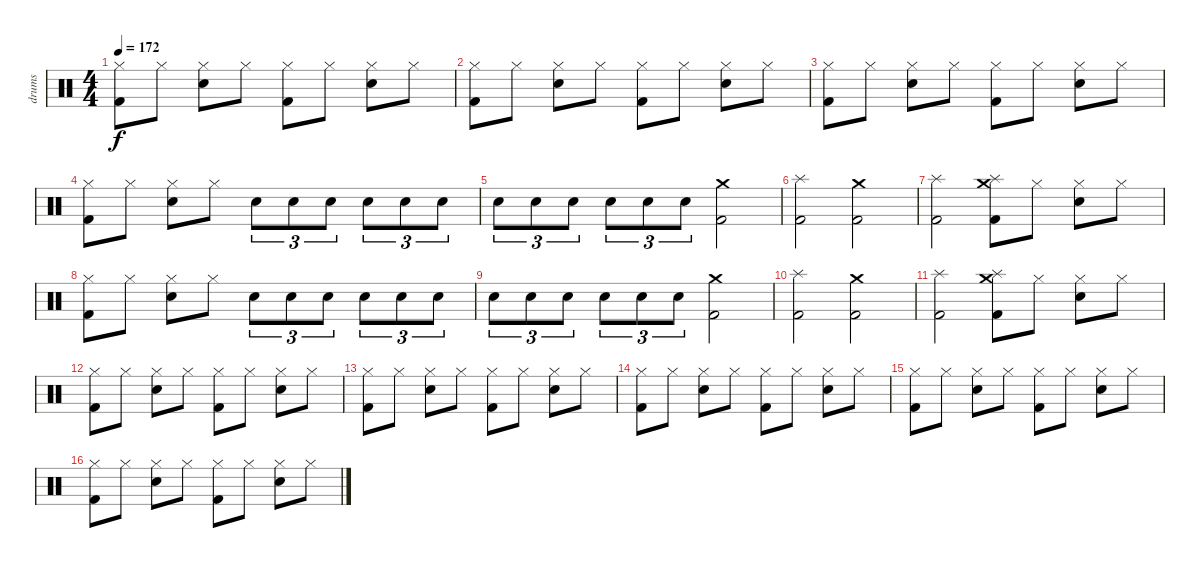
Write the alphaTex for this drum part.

\track ("drums" "drums") {instrument percussion}
\staff {score}
\articulation defaults
\ts (4 4)
\tempo 172
\clef neutral
\ks c
("Hi-Hat (closed)" "Kick (hit) 2").8{dy f} "Hi-Hat (closed)".8 ("Hi-Hat (closed)" "Snare (hit) 2").8 "Hi-Hat (closed)".8 ("Hi-Hat (closed)" "Kick (hit) 2").8 "Hi-Hat (closed)".8 ("Hi-Hat (closed)" "Snare (hit) 2").8 "Hi-Hat (closed)".8 |
("Hi-Hat (closed)" "Kick (hit) 2").8 "Hi-Hat (closed)".8 ("Hi-Hat (closed)" "Snare (hit) 2").8 "Hi-Hat (closed)".8 ("Hi-Hat (closed)" "Kick (hit) 2").8 "Hi-Hat (closed)".8 ("Hi-Hat (closed)" "Snare (hit) 2").8 "Hi-Hat (closed)".8 |
("Hi-Hat (closed)" "Kick (hit) 2").8 "Hi-Hat (closed)".8 ("Hi-Hat (closed)" "Snare (hit) 2").8 "Hi-Hat (closed)".8 ("Hi-Hat (closed)" "Kick (hit) 2").8 "Hi-Hat (closed)".8 ("Hi-Hat (closed)" "Snare (hit) 2").8 "Hi-Hat (closed)".8 |
("Hi-Hat (closed)" "Kick (hit) 2").8 "Hi-Hat (closed)".8 ("Hi-Hat (closed)" "Snare (hit) 2").8 "Hi-Hat (closed)".8 "Snare (hit) 2".8{tu (3 2)} "Snare (hit) 2".8{tu (3 2)} "Snare (hit) 2".8{tu (3 2)} "Snare (hit) 2".8{tu (3 2)} "Snare (hit) 2".8{tu (3 2)} "Snare (hit) 2".8{tu (3 2)} |
"Snare (hit) 2".8{tu (3 2)} "Snare (hit) 2".8{tu (3 2)} "Snare (hit) 2".8{tu (3 2)} "Snare (hit) 2".8{tu (3 2)} "Snare (hit) 2".8{tu (3 2)} "Snare (hit) 2".8{tu (3 2)} ("Crash medium (hit)" "Kick (hit) 2").2 |
("Splash (hit)" "Kick (hit) 2").2 ("Crash medium (hit)" "Kick (hit) 2").2 |
("Splash (hit)" "Kick (hit) 2").2 ("Crash medium (hit)" "Splash (hit)" "Kick (hit) 2").8 "Hi-Hat (closed)".8 ("Hi-Hat (closed)" "Snare (hit) 2").8 "Hi-Hat (closed)".8 |
("Hi-Hat (closed)" "Kick (hit) 2").8 "Hi-Hat (closed)".8 ("Hi-Hat (closed)" "Snare (hit) 2").8 "Hi-Hat (closed)".8 "Snare (hit) 2".8{tu (3 2)} "Snare (hit) 2".8{tu (3 2)} "Snare (hit) 2".8{tu (3 2)} "Snare (hit) 2".8{tu (3 2)} "Snare (hit) 2".8{tu (3 2)} "Snare (hit) 2".8{tu (3 2)} |
"Snare (hit) 2".8{tu (3 2)} "Snare (hit) 2".8{tu (3 2)} "Snare (hit) 2".8{tu (3 2)} "Snare (hit) 2".8{tu (3 2)} "Snare (hit) 2".8{tu (3 2)} "Snare (hit) 2".8{tu (3 2)} ("Crash medium (hit)" "Kick (hit) 2").2 |
("Splash (hit)" "Kick (hit) 2").2 ("Crash medium (hit)" "Kick (hit) 2").2 |
("Splash (hit)" "Kick (hit) 2").2 ("Crash medium (hit)" "Splash (hit)" "Kick (hit) 2").8 "Hi-Hat (closed)".8 ("Hi-Hat (closed)" "Snare (hit) 2").8 "Hi-Hat (closed)".8 |
("Hi-Hat (closed)" "Kick (hit) 2").8 "Hi-Hat (closed)".8 ("Hi-Hat (closed)" "Snare (hit) 2").8 "Hi-Hat (closed)".8 ("Hi-Hat (closed)" "Kick (hit) 2").8 "Hi-Hat (closed)".8 ("Hi-Hat (closed)" "Snare (hit) 2").8 "Hi-Hat (closed)".8 |
("Hi-Hat (closed)" "Kick (hit) 2").8 "Hi-Hat (closed)".8 ("Hi-Hat (closed)" "Snare (hit) 2").8 "Hi-Hat (closed)".8 ("Hi-Hat (closed)" "Kick (hit) 2").8 "Hi-Hat (closed)".8 ("Hi-Hat (closed)" "Snare (hit) 2").8 "Hi-Hat (closed)".8 |
("Hi-Hat (closed)" "Kick (hit) 2").8 "Hi-Hat (closed)".8 ("Hi-Hat (closed)" "Snare (hit) 2").8 "Hi-Hat (closed)".8 ("Hi-Hat (closed)" "Kick (hit) 2").8 "Hi-Hat (closed)".8 ("Hi-Hat (closed)" "Snare (hit) 2").8 "Hi-Hat (closed)".8 |
("Hi-Hat (closed)" "Kick (hit) 2").8 "Hi-Hat (closed)".8 ("Hi-Hat (closed)" "Snare (hit) 2").8 "Hi-Hat (closed)".8 ("Hi-Hat (closed)" "Kick (hit) 2").8 "Hi-Hat (closed)".8 ("Hi-Hat (closed)" "Snare (hit) 2").8 "Hi-Hat (closed)".8 |
("Hi-Hat (closed)" "Kick (hit) 2").8 "Hi-Hat (closed)".8 ("Hi-Hat (closed)" "Snare (hit) 2").8 "Hi-Hat (closed)".8 ("Hi-Hat (closed)" "Kick (hit) 2").8 "Hi-Hat (closed)".8 ("Hi-Hat (closed)" "Snare (hit) 2").8 "Hi-Hat (closed)".8
